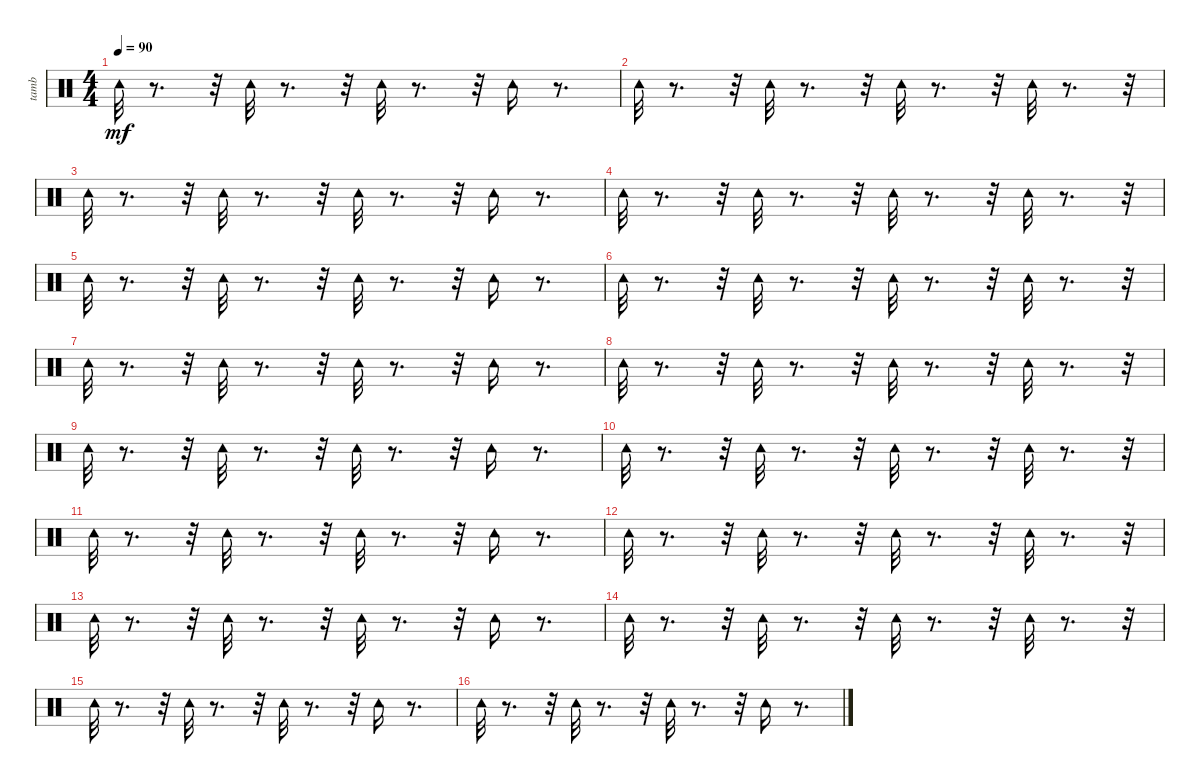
\track ("tamb" "tamb") {instrument percussion}
\staff {score}
\articulation defaults
\ts (4 4)
\tempo 90
\clef neutral
\ks c "Tambourine (hit)".32{dy mf}
r.8{d} r.32 "Tambourine (hit)".32 r.8{d} r.32 "Tambourine (hit)".32 r.8{d} r.32 "Tambourine (hit)".16 r.8{d} |
"Tambourine (hit)".32 r.8{d} r.32 "Tambourine (hit)".32 r.8{d} r.32 "Tambourine (hit)".32 r.8{d} r.32 "Tambourine (hit)".32 r.8{d} r.32 |
"Tambourine (hit)".32 r.8{d} r.32 "Tambourine (hit)".32 r.8{d} r.32 "Tambourine (hit)".32 r.8{d} r.32 "Tambourine (hit)".16 r.8{d} |
"Tambourine (hit)".32 r.8{d} r.32 "Tambourine (hit)".32 r.8{d} r.32 "Tambourine (hit)".32 r.8{d} r.32 "Tambourine (hit)".32 r.8{d} r.32 |
"Tambourine (hit)".32 r.8{d} r.32 "Tambourine (hit)".32 r.8{d} r.32 "Tambourine (hit)".32 r.8{d} r.32 "Tambourine (hit)".16 r.8{d} |
"Tambourine (hit)".32 r.8{d} r.32 "Tambourine (hit)".32 r.8{d} r.32 "Tambourine (hit)".32 r.8{d} r.32 "Tambourine (hit)".32 r.8{d} r.32 |
"Tambourine (hit)".32 r.8{d} r.32 "Tambourine (hit)".32 r.8{d} r.32 "Tambourine (hit)".32 r.8{d} r.32 "Tambourine (hit)".16 r.8{d} |
"Tambourine (hit)".32 r.8{d} r.32 "Tambourine (hit)".32 r.8{d} r.32 "Tambourine (hit)".32 r.8{d} r.32 "Tambourine (hit)".32 r.8{d} r.32 |
"Tambourine (hit)".32 r.8{d} r.32 "Tambourine (hit)".32 r.8{d} r.32 "Tambourine (hit)".32 r.8{d} r.32 "Tambourine (hit)".16 r.8{d} |
"Tambourine (hit)".32 r.8{d} r.32 "Tambourine (hit)".32 r.8{d} r.32 "Tambourine (hit)".32 r.8{d} r.32 "Tambourine (hit)".32 r.8{d} r.32 |
"Tambourine (hit)".32 r.8{d} r.32 "Tambourine (hit)".32 r.8{d} r.32 "Tambourine (hit)".32 r.8{d} r.32 "Tambourine (hit)".16 r.8{d} |
"Tambourine (hit)".32 r.8{d} r.32 "Tambourine (hit)".32 r.8{d} r.32 "Tambourine (hit)".32 r.8{d} r.32 "Tambourine (hit)".32 r.8{d} r.32 |
"Tambourine (hit)".32 r.8{d} r.32 "Tambourine (hit)".32 r.8{d} r.32 "Tambourine (hit)".32 r.8{d} r.32 "Tambourine (hit)".16 r.8{d} |
"Tambourine (hit)".32 r.8{d} r.32 "Tambourine (hit)".32 r.8{d} r.32 "Tambourine (hit)".32 r.8{d} r.32 "Tambourine (hit)".32 r.8{d} r.32 |
"Tambourine (hit)".32 r.8{d} r.32 "Tambourine (hit)".32 r.8{d} r.32 "Tambourine (hit)".32 r.8{d} r.32 "Tambourine (hit)".16 r.8{d} |
"Tambourine (hit)".32 r.8{d} r.32 "Tambourine (hit)".32 r.8{d} r.32 "Tambourine (hit)".32 r.8{d} r.32 "Tambourine (hit)".16 r.8{d}
